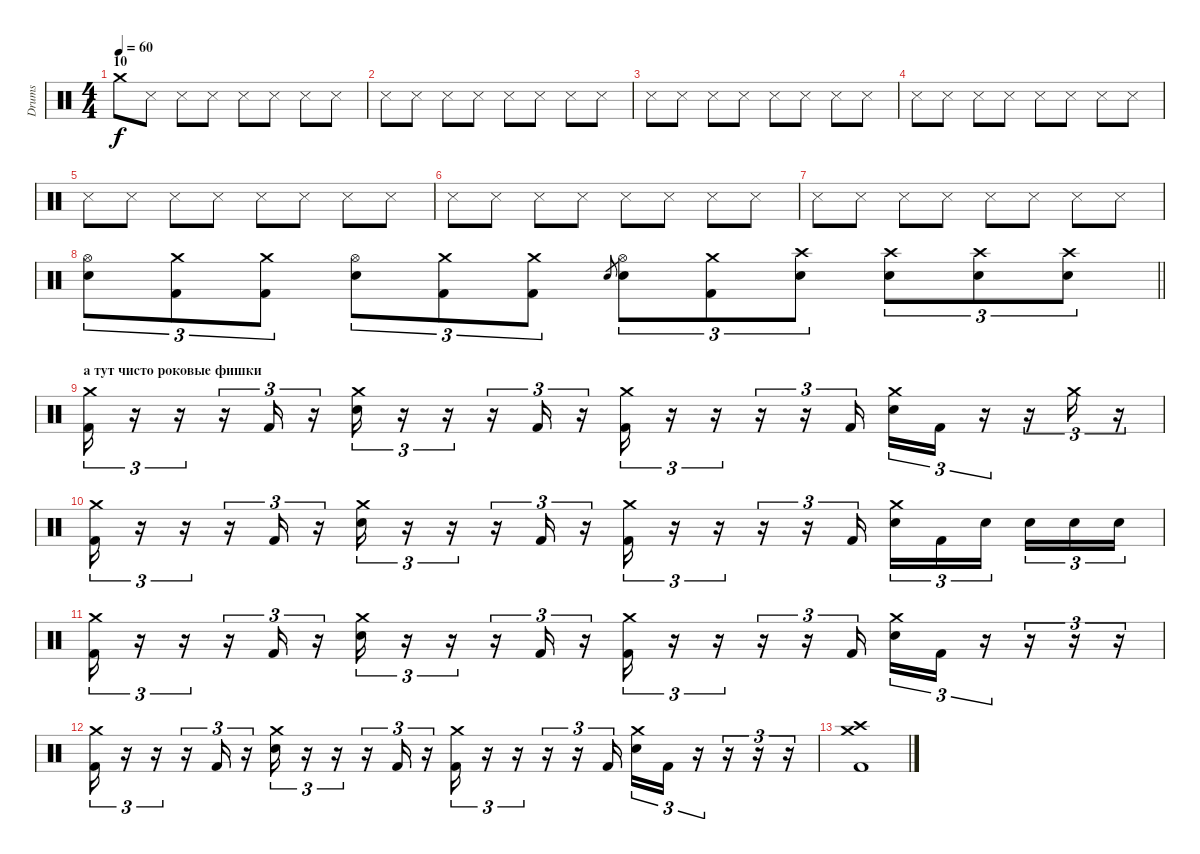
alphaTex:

\track ("Drums" "Drums") {instrument percussion}
\staff {score}
\articulation defaults
\ts (4 4)
\section ("" "10")
\tempo 60
\clef neutral
\ks c "Crash medium (hit)".8{dy f} "Snare (side stick) 3".8 "Snare (side stick) 3".8 "Snare (side stick) 3".8 "Snare (side stick) 3".8 "Snare (side stick) 3".8 "Snare (side stick) 3".8 "Snare (side stick) 3".8
|
"Snare (side stick) 3".8 "Snare (side stick) 3".8 "Snare (side stick) 3".8 "Snare (side stick) 3".8 "Snare (side stick) 3".8 "Snare (side stick) 3".8 "Snare (side stick) 3".8 "Snare (side stick) 3".8 |
"Snare (side stick) 3".8 "Snare (side stick) 3".8 "Snare (side stick) 3".8 "Snare (side stick) 3".8 "Snare (side stick) 3".8 "Snare (side stick) 3".8 "Snare (side stick) 3".8 "Snare (side stick) 3".8 |
"Snare (side stick) 3".8 "Snare (side stick) 3".8 "Snare (side stick) 3".8 "Snare (side stick) 3".8 "Snare (side stick) 3".8 "Snare (side stick) 3".8 "Snare (side stick) 3".8 "Snare (side stick) 3".8 |
"Snare (side stick) 3".8 "Snare (side stick) 3".8 "Snare (side stick) 3".8 "Snare (side stick) 3".8 "Snare (side stick) 3".8 "Snare (side stick) 3".8 "Snare (side stick) 3".8 "Snare (side stick) 3".8 |
"Snare (side stick) 3".8 "Snare (side stick) 3".8 "Snare (side stick) 3".8 "Snare (side stick) 3".8 "Snare (side stick) 3".8 "Snare (side stick) 3".8 "Snare (side stick) 3".8 "Snare (side stick) 3".8 |
"Snare (side stick) 3".8 "Snare (side stick) 3".8 "Snare (side stick) 3".8 "Snare (side stick) 3".8 "Snare (side stick) 3".8 "Snare (side stick) 3".8 "Snare (side stick) 3".8 "Snare (side stick) 3".8 |
\barLineRight lightlight
("Hi-Hat (open)" "Electric Snare (hit)").8{tu (3 2)} ("Crash medium (hit)" "Kick (hit) 2").8{tu (3 2)} ("Crash medium (hit)" "Kick (hit) 2").8{tu (3 2)} ("Hi-Hat (open)" "Electric Snare (hit)").8{tu (3 2)} ("Crash medium (hit)" "Kick (hit) 2").8{tu (3 2)} ("Crash medium (hit)" "Kick (hit) 2").8{tu (3 2)} "Electric Snare (hit)".8{gr} ("Hi-Hat (open)" "Electric Snare (hit)").8{tu (3 2)} ("Crash medium (hit)" "Kick (hit) 2").8{tu (3 2)} ("Crash high (hit)" "Electric Snare (hit)").8{tu (3 2)} ("Crash high (hit)" "Electric Snare (hit)").8{tu (3 2)} ("Crash high (hit)" "Electric Snare (hit)").8{tu (3 2)} ("Crash high (hit)" "Electric Snare (hit)").8{tu (3 2)} |
\section ("" "а тут чисто роковые фишки")
("Crash medium (hit)" "Kick (hit) 2").16{tu (3 2)} r.16{tu (3 2)} r.16{tu (3 2)} r.16{tu (3 2)} "Kick (hit) 2".16{tu (3 2)} r.16{tu (3 2)} ("Crash medium (hit)" "Electric Snare (hit)").16{tu (3 2)} r.16{tu (3 2)} r.16{tu (3 2)} r.16{tu (3 2)} "Kick (hit) 2".16{tu (3 2)} r.16{tu (3 2)} ("Crash medium (hit)" "Kick (hit) 2").16{tu (3 2)} r.16{tu (3 2)} r.16{tu (3 2)} r.16{tu (3 2)} r.16{tu (3 2)} "Kick (hit) 2".16{tu (3 2)} ("Crash medium (hit)" "Electric Snare (hit)").16{tu (3 2)} "Kick (hit) 2".16{tu (3 2)} r.16{tu (3 2)} r.16{tu (3 2)} "Crash medium (hit)".16{tu (3 2)} r.16{tu (3 2)} |
("Crash medium (hit)" "Kick (hit) 2").16{tu (3 2)} r.16{tu (3 2)} r.16{tu (3 2)} r.16{tu (3 2)} "Kick (hit) 2".16{tu (3 2)} r.16{tu (3 2)} ("Crash medium (hit)" "Electric Snare (hit)").16{tu (3 2)} r.16{tu (3 2)} r.16{tu (3 2)} r.16{tu (3 2)} "Kick (hit) 2".16{tu (3 2)} r.16{tu (3 2)} ("Crash medium (hit)" "Kick (hit) 2").16{tu (3 2)} r.16{tu (3 2)} r.16{tu (3 2)} r.16{tu (3 2)} r.16{tu (3 2)} "Kick (hit) 2".16{tu (3 2)} ("Crash medium (hit)" "Electric Snare (hit)").16{tu (3 2)} "Kick (hit) 2".16{tu (3 2)} "Electric Snare (hit)".16{tu (3 2) beam splitsecondary} "Electric Snare (hit)".16{tu (3 2)} "Electric Snare (hit)".16{tu (3 2)} "Electric Snare (hit)".16{tu (3 2)} |
("Crash medium (hit)" "Kick (hit) 2").16{tu (3 2)} r.16{tu (3 2)} r.16{tu (3 2)} r.16{tu (3 2)} "Kick (hit) 2".16{tu (3 2)} r.16{tu (3 2)} ("Crash medium (hit)" "Electric Snare (hit)").16{tu (3 2)} r.16{tu (3 2)} r.16{tu (3 2)} r.16{tu (3 2)} "Kick (hit) 2".16{tu (3 2)} r.16{tu (3 2)} ("Crash medium (hit)" "Kick (hit) 2").16{tu (3 2)} r.16{tu (3 2)} r.16{tu (3 2)} r.16{tu (3 2)} r.16{tu (3 2)} "Kick (hit) 2".16{tu (3 2)} ("Crash medium (hit)" "Electric Snare (hit)").16{tu (3 2)} "Kick (hit) 2".16{tu (3 2)} r.16{tu (3 2)} r.16{tu (3 2)} r.16{tu (3 2)} r.16{tu (3 2)} |
("Crash medium (hit)" "Kick (hit) 2").16{tu (3 2)} r.16{tu (3 2)} r.16{tu (3 2)} r.16{tu (3 2)} "Kick (hit) 2".16{tu (3 2)} r.16{tu (3 2)} ("Crash medium (hit)" "Electric Snare (hit)").16{tu (3 2)} r.16{tu (3 2)} r.16{tu (3 2)} r.16{tu (3 2)} "Kick (hit) 2".16{tu (3 2)} r.16{tu (3 2)} ("Crash medium (hit)" "Kick (hit) 2").16{tu (3 2)} r.16{tu (3 2)} r.16{tu (3 2)} r.16{tu (3 2)} r.16{tu (3 2)} "Kick (hit) 2".16{tu (3 2)} ("Crash medium (hit)" "Electric Snare (hit)").16{tu (3 2)} "Kick (hit) 2".16{tu (3 2)} r.16{tu (3 2)} r.16{tu (3 2)} r.16{tu (3 2)} r.16{tu (3 2)} |
("Crash medium (hit)" "Crash high (hit)" "Kick (hit) 2").1
